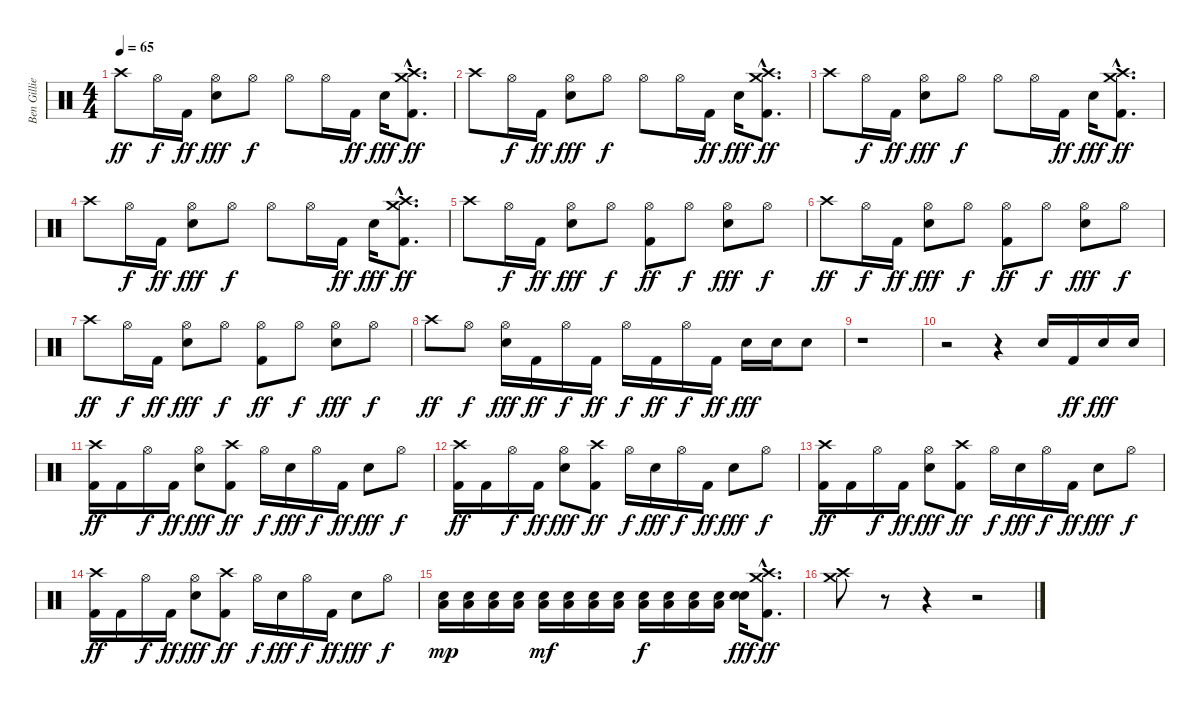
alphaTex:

\track ("Ben Gillies" "Ben Gillie") {instrument percussion}
\staff {score}
\articulation defaults
\ts (4 4)
\tempo 65
\clef neutral
\ks c "Crash high (hit)".8{dy ff} "Hi-Hat (open)".16{dy f} "Kick (hit) 2".16{dy ff}
("Hi-Hat (open)" "Electric Snare (hit)").8{dy fff} "Hi-Hat (open)".8{dy f} "Hi-Hat (open)".8 "Hi-Hat (open)".16 "Kick (hit) 2".16{dy ff} "Electric Snare (hit)".16{dy fff} ("Crash high (hit)"{hac} "Crash medium (hit)"{hac} "Kick (hit) 2"{hac}).8{d dy ff} |
"Crash high (hit)".8 "Hi-Hat (open)".16{dy f} "Kick (hit) 2".16{dy ff} ("Hi-Hat (open)" "Electric Snare (hit)").8{dy fff} "Hi-Hat (open)".8{dy f} "Hi-Hat (open)".8 "Hi-Hat (open)".16 "Kick (hit) 2".16{dy ff} "Electric Snare (hit)".16{dy fff} ("Crash high (hit)"{hac} "Crash medium (hit)"{hac} "Kick (hit) 2"{hac}).8{d dy ff} |
"Crash high (hit)".8 "Hi-Hat (open)".16{dy f} "Kick (hit) 2".16{dy ff} ("Hi-Hat (open)" "Electric Snare (hit)").8{dy fff} "Hi-Hat (open)".8{dy f} "Hi-Hat (open)".8 "Hi-Hat (open)".16 "Kick (hit) 2".16{dy ff} "Electric Snare (hit)".16{dy fff} ("Crash high (hit)"{hac} "Crash medium (hit)"{hac} "Kick (hit) 2"{hac}).8{d dy ff} |
"Crash high (hit)".8 "Hi-Hat (open)".16{dy f} "Kick (hit) 2".16{dy ff} ("Hi-Hat (open)" "Electric Snare (hit)").8{dy fff} "Hi-Hat (open)".8{dy f} "Hi-Hat (open)".8 "Hi-Hat (open)".16 "Kick (hit) 2".16{dy ff} "Electric Snare (hit)".16{dy fff} ("Crash high (hit)"{hac} "Crash medium (hit)"{hac} "Kick (hit) 2"{hac}).8{d dy ff} |
"Crash high (hit)".8 "Hi-Hat (open)".16{dy f} "Kick (hit) 2".16{dy ff} ("Hi-Hat (open)" "Electric Snare (hit)").8{dy fff} "Hi-Hat (open)".8{dy f} ("Hi-Hat (open)" "Kick (hit) 2").8{dy ff} "Hi-Hat (open)".8{dy f} ("Hi-Hat (open)" "Electric Snare (hit)").8{dy fff} "Hi-Hat (open)".8{dy f} |
"Crash high (hit)".8{dy ff} "Hi-Hat (open)".16{dy f} "Kick (hit) 2".16{dy ff} ("Hi-Hat (open)" "Electric Snare (hit)").8{dy fff} "Hi-Hat (open)".8{dy f} ("Hi-Hat (open)" "Kick (hit) 2").8{dy ff} "Hi-Hat (open)".8{dy f} ("Hi-Hat (open)" "Electric Snare (hit)").8{dy fff} "Hi-Hat (open)".8{dy f} |
"Crash high (hit)".8{dy ff} "Hi-Hat (open)".16{dy f} "Kick (hit) 2".16{dy ff} ("Hi-Hat (open)" "Electric Snare (hit)").8{dy fff} "Hi-Hat (open)".8{dy f} ("Hi-Hat (open)" "Kick (hit) 2").8{dy ff} "Hi-Hat (open)".8{dy f} ("Hi-Hat (open)" "Electric Snare (hit)").8{dy fff} "Hi-Hat (open)".8{dy f} |
"Crash high (hit)".8{dy ff} "Hi-Hat (open)".8{dy f} ("Hi-Hat (open)" "Electric Snare (hit)").16{dy fff} "Kick (hit) 2".16{dy ff} "Hi-Hat (open)".16{dy f} "Kick (hit) 2".16{dy ff} "Hi-Hat (open)".16{dy f} "Kick (hit) 2".16{dy ff} "Hi-Hat (open)".16{dy f} "Kick (hit) 2".16{dy ff} "Electric Snare (hit)".16{dy fff} "Electric Snare (hit)".16 "Electric Snare (hit)".8 |
r.1 |
r.2 r.4 "Electric Snare (hit)".16 "Kick (hit) 2".16{dy ff} "Electric Snare (hit)".16{dy fff} "Electric Snare (hit)".16 |
("Crash high (hit)" "Kick (hit) 2").16{dy ff} "Kick (hit) 2".16 "Hi-Hat (open)".16{dy f} "Kick (hit) 2".16{dy ff} ("Hi-Hat (open)" "Electric Snare (hit)").8{dy fff} ("Crash high (hit)" "Kick (hit) 2").8{dy ff} "Hi-Hat (open)".16{dy f} "Electric Snare (hit)".16{dy fff} "Hi-Hat (open)".16{dy f} "Kick (hit) 2".16{dy ff} "Electric Snare (hit)".8{dy fff} "Hi-Hat (open)".8{dy f} |
("Crash high (hit)" "Kick (hit) 2").16{dy ff} "Kick (hit) 2".16 "Hi-Hat (open)".16{dy f} "Kick (hit) 2".16{dy ff} ("Hi-Hat (open)" "Electric Snare (hit)").8{dy fff} ("Crash high (hit)" "Kick (hit) 2").8{dy ff} "Hi-Hat (open)".16{dy f} "Electric Snare (hit)".16{dy fff} "Hi-Hat (open)".16{dy f} "Kick (hit) 2".16{dy ff} "Electric Snare (hit)".8{dy fff} "Hi-Hat (open)".8{dy f} |
("Crash high (hit)" "Kick (hit) 2").16{dy ff} "Kick (hit) 2".16 "Hi-Hat (open)".16{dy f} "Kick (hit) 2".16{dy ff} ("Hi-Hat (open)" "Electric Snare (hit)").8{dy fff} ("Crash high (hit)" "Kick (hit) 2").8{dy ff} "Hi-Hat (open)".16{dy f} "Electric Snare (hit)".16{dy fff} "Hi-Hat (open)".16{dy f} "Kick (hit) 2".16{dy ff} "Electric Snare (hit)".8{dy fff} "Hi-Hat (open)".8{dy f} |
("Crash high (hit)" "Kick (hit) 2").16{dy ff} "Kick (hit) 2".16 "Hi-Hat (open)".16{dy f} "Kick (hit) 2".16{dy ff} ("Hi-Hat (open)" "Electric Snare (hit)").8{dy fff} ("Crash high (hit)" "Kick (hit) 2").8{dy ff} "Hi-Hat (open)".16{dy f} "Electric Snare (hit)".16{dy fff} "Hi-Hat (open)".16{dy f} "Kick (hit) 2".16{dy ff} "Electric Snare (hit)".8{dy fff} "Hi-Hat (open)".8{dy f} |
("Low Floor Tom (hit)" "Electric Snare (hit)").16{dy mp} ("Low Floor Tom (hit)" "Electric Snare (hit)").16 ("Low Floor Tom (hit)" "Electric Snare (hit)").16 ("Low Floor Tom (hit)" "Electric Snare (hit)").16 ("Low Floor Tom (hit)" "Electric Snare (hit)").16{dy mf} ("Low Floor Tom (hit)" "Electric Snare (hit)").16 ("Low Floor Tom (hit)" "Electric Snare (hit)").16 ("Low Floor Tom (hit)" "Electric Snare (hit)").16 ("Low Floor Tom (hit)" "Electric Snare (hit)").16{dy f} ("Low Floor Tom (hit)" "Electric Snare (hit)").16 ("Low Floor Tom (hit)" "Electric Snare (hit)").16 ("Low Floor Tom (hit)" "Electric Snare (hit)").16 ("Electric Snare (hit)" "Electric Snare (hit)").16{dy fff} ("Crash high (hit)"{hac} "Crash medium (hit)"{hac} "Kick (hit) 2"{hac}).8{d dy ff} |
("Crash high (hit)" "Crash medium (hit)").8 r.8 r.4 r.2
